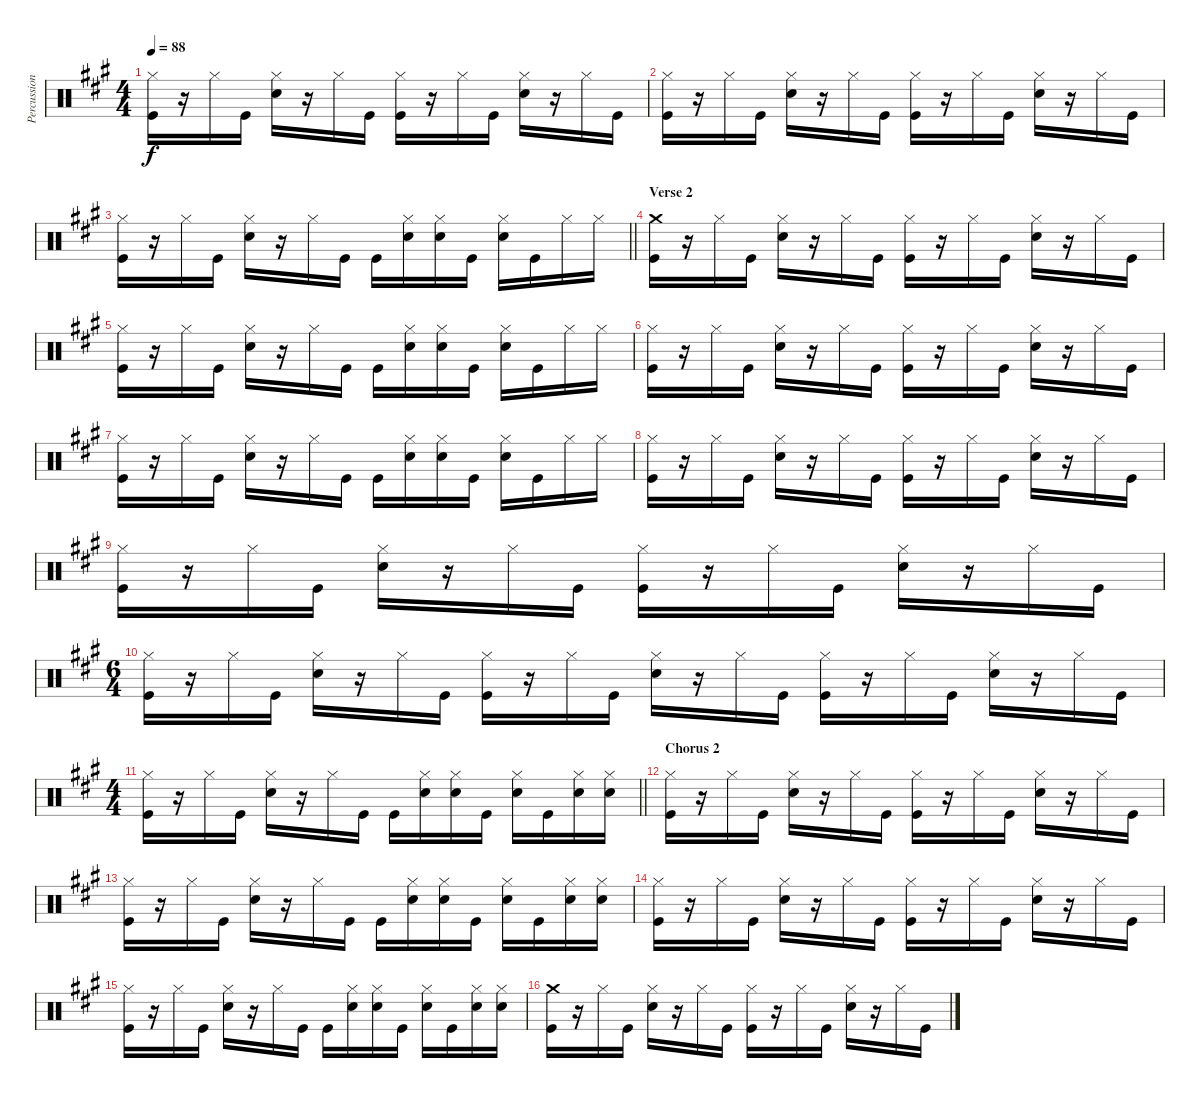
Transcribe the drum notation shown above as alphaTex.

\track ("Percussion" "Percussion") {instrument percussion}
\staff {score}
\articulation defaults
\ts (4 4)
\tempo 88
\clef neutral
\ks a
("Hi-Hat (closed)" "Kick (hit)").16{dy f} r.16 "Hi-Hat (closed)".16 "Kick (hit)".16 ("Hi-Hat (closed)" "Snare (hit) 2").16 r.16 "Hi-Hat (closed)".16 "Kick (hit)".16 ("Hi-Hat (closed)" "Kick (hit)").16 r.16 "Hi-Hat (closed)".16 "Kick (hit)".16 ("Hi-Hat (closed)" "Snare (hit) 2").16 r.16 "Hi-Hat (closed)".16 "Kick (hit)".16 |
("Hi-Hat (closed)" "Kick (hit)").16 r.16 "Hi-Hat (closed)".16 "Kick (hit)".16 ("Hi-Hat (closed)" "Snare (hit) 2").16 r.16 "Hi-Hat (closed)".16 "Kick (hit)".16 ("Hi-Hat (closed)" "Kick (hit)").16 r.16 "Hi-Hat (closed)".16 "Kick (hit)".16 ("Hi-Hat (closed)" "Snare (hit) 2").16 r.16 "Hi-Hat (closed)".16 "Kick (hit)".16 |
\barLineRight lightlight
("Hi-Hat (closed)" "Kick (hit)").16 r.16 "Hi-Hat (closed)".16 "Kick (hit)".16 ("Hi-Hat (closed)" "Snare (hit) 2").16 r.16 "Hi-Hat (closed)".16 "Kick (hit)".16 "Kick (hit)".16 ("Hi-Hat (closed)" "Snare (hit) 2").16 ("Hi-Hat (closed)" "Snare (hit) 2").16 "Kick (hit)".16 ("Hi-Hat (closed)" "Snare (hit) 2").16 "Kick (hit)".16 "Hi-Hat (closed)".16 "Hi-Hat (closed)".16 |
\section ("" "Verse 2")
("Crash medium (hit)" "Kick (hit)").16 r.16 "Hi-Hat (closed)".16 "Kick (hit)".16 ("Hi-Hat (closed)" "Snare (hit) 2").16 r.16 "Hi-Hat (closed)".16 "Kick (hit)".16 ("Hi-Hat (closed)" "Kick (hit)").16 r.16 "Hi-Hat (closed)".16 "Kick (hit)".16 ("Hi-Hat (closed)" "Snare (hit) 2").16 r.16 "Hi-Hat (closed)".16 "Kick (hit)".16 |
("Hi-Hat (closed)" "Kick (hit)").16 r.16 "Hi-Hat (closed)".16 "Kick (hit)".16 ("Hi-Hat (closed)" "Snare (hit) 2").16 r.16 "Hi-Hat (closed)".16 "Kick (hit)".16 "Kick (hit)".16 ("Hi-Hat (closed)" "Snare (hit) 2").16 ("Hi-Hat (closed)" "Snare (hit) 2").16 "Kick (hit)".16 ("Hi-Hat (closed)" "Snare (hit) 2").16 "Kick (hit)".16 "Hi-Hat (closed)".16 "Hi-Hat (closed)".16 |
("Hi-Hat (closed)" "Kick (hit)").16 r.16 "Hi-Hat (closed)".16 "Kick (hit)".16 ("Hi-Hat (closed)" "Snare (hit) 2").16 r.16 "Hi-Hat (closed)".16 "Kick (hit)".16 ("Hi-Hat (closed)" "Kick (hit)").16 r.16 "Hi-Hat (closed)".16 "Kick (hit)".16 ("Hi-Hat (closed)" "Snare (hit) 2").16 r.16 "Hi-Hat (closed)".16 "Kick (hit)".16 |
("Hi-Hat (closed)" "Kick (hit)").16 r.16 "Hi-Hat (closed)".16 "Kick (hit)".16 ("Hi-Hat (closed)" "Snare (hit) 2").16 r.16 "Hi-Hat (closed)".16 "Kick (hit)".16 "Kick (hit)".16 ("Hi-Hat (closed)" "Snare (hit) 2").16 ("Hi-Hat (closed)" "Snare (hit) 2").16 "Kick (hit)".16 ("Hi-Hat (closed)" "Snare (hit) 2").16 "Kick (hit)".16 "Hi-Hat (closed)".16 "Hi-Hat (closed)".16 |
("Hi-Hat (closed)" "Kick (hit)").16 r.16 "Hi-Hat (closed)".16 "Kick (hit)".16 ("Hi-Hat (closed)" "Snare (hit) 2").16 r.16 "Hi-Hat (closed)".16 "Kick (hit)".16 ("Hi-Hat (closed)" "Kick (hit)").16 r.16 "Hi-Hat (closed)".16 "Kick (hit)".16 ("Hi-Hat (closed)" "Snare (hit) 2").16 r.16 "Hi-Hat (closed)".16 "Kick (hit)".16 |
("Hi-Hat (closed)" "Kick (hit)").16 r.16 "Hi-Hat (closed)".16 "Kick (hit)".16 ("Hi-Hat (closed)" "Snare (hit) 2").16 r.16 "Hi-Hat (closed)".16 "Kick (hit)".16 ("Hi-Hat (closed)" "Kick (hit)").16 r.16 "Hi-Hat (closed)".16 "Kick (hit)".16 ("Hi-Hat (closed)" "Snare (hit) 2").16 r.16 "Hi-Hat (closed)".16 "Kick (hit)".16 |
\ts (6 4)
("Hi-Hat (closed)" "Kick (hit)").16 r.16 "Hi-Hat (closed)".16 "Kick (hit)".16 ("Hi-Hat (closed)" "Snare (hit) 2").16 r.16 "Hi-Hat (closed)".16 "Kick (hit)".16 ("Hi-Hat (closed)" "Kick (hit)").16 r.16 "Hi-Hat (closed)".16 "Kick (hit)".16 ("Hi-Hat (closed)" "Snare (hit) 2").16 r.16 "Hi-Hat (closed)".16 "Kick (hit)".16 ("Hi-Hat (closed)" "Kick (hit)").16 r.16 "Hi-Hat (closed)".16 "Kick (hit)".16 ("Hi-Hat (closed)" "Snare (hit) 2").16 r.16 "Hi-Hat (closed)".16 "Kick (hit)".16 |
\ts (4 4)
\barLineRight lightlight
("Hi-Hat (closed)" "Kick (hit)").16 r.16 "Hi-Hat (closed)".16 "Kick (hit)".16 ("Hi-Hat (closed)" "Snare (hit) 2").16 r.16 "Hi-Hat (closed)".16 "Kick (hit)".16 "Kick (hit)".16 ("Hi-Hat (closed)" "Snare (hit) 2").16 ("Hi-Hat (closed)" "Snare (hit) 2").16 "Kick (hit)".16 ("Hi-Hat (closed)" "Snare (hit) 2").16 "Kick (hit)".16 ("Hi-Hat (closed)" "Snare (hit) 2").16 ("Hi-Hat (closed)" "Snare (hit) 2").16 |
\section ("" "Chorus 2")
("Hi-Hat (closed)" "Kick (hit)").16 r.16 "Hi-Hat (closed)".16 "Kick (hit)".16 ("Hi-Hat (closed)" "Snare (hit) 2").16 r.16 "Hi-Hat (closed)".16 "Kick (hit)".16 ("Hi-Hat (closed)" "Kick (hit)").16 r.16 "Hi-Hat (closed)".16 "Kick (hit)".16 ("Hi-Hat (closed)" "Snare (hit) 2").16 r.16 "Hi-Hat (closed)".16 "Kick (hit)".16 |
("Hi-Hat (closed)" "Kick (hit)").16 r.16 "Hi-Hat (closed)".16 "Kick (hit)".16 ("Hi-Hat (closed)" "Snare (hit) 2").16 r.16 "Hi-Hat (closed)".16 "Kick (hit)".16 "Kick (hit)".16 ("Hi-Hat (closed)" "Snare (hit) 2").16 ("Hi-Hat (closed)" "Snare (hit) 2").16 "Kick (hit)".16 ("Hi-Hat (closed)" "Snare (hit) 2").16 "Kick (hit)".16 ("Hi-Hat (closed)" "Snare (hit) 2").16 ("Hi-Hat (closed)" "Snare (hit) 2").16 |
("Hi-Hat (closed)" "Kick (hit)").16 r.16 "Hi-Hat (closed)".16 "Kick (hit)".16 ("Hi-Hat (closed)" "Snare (hit) 2").16 r.16 "Hi-Hat (closed)".16 "Kick (hit)".16 ("Hi-Hat (closed)" "Kick (hit)").16 r.16 "Hi-Hat (closed)".16 "Kick (hit)".16 ("Hi-Hat (closed)" "Snare (hit) 2").16 r.16 "Hi-Hat (closed)".16 "Kick (hit)".16 |
("Hi-Hat (closed)" "Kick (hit)").16 r.16 "Hi-Hat (closed)".16 "Kick (hit)".16 ("Hi-Hat (closed)" "Snare (hit) 2").16 r.16 "Hi-Hat (closed)".16 "Kick (hit)".16 "Kick (hit)".16 ("Hi-Hat (closed)" "Snare (hit) 2").16 ("Hi-Hat (closed)" "Snare (hit) 2").16 "Kick (hit)".16 ("Hi-Hat (closed)" "Snare (hit) 2").16 "Kick (hit)".16 ("Hi-Hat (closed)" "Snare (hit) 2").16 ("Hi-Hat (closed)" "Snare (hit) 2").16 |
("Crash medium (hit)" "Kick (hit)").16 r.16 "Hi-Hat (closed)".16 "Kick (hit)".16 ("Hi-Hat (closed)" "Snare (hit) 2").16 r.16 "Hi-Hat (closed)".16 "Kick (hit)".16 ("Hi-Hat (closed)" "Kick (hit)").16 r.16 "Hi-Hat (closed)".16 "Kick (hit)".16 ("Hi-Hat (closed)" "Snare (hit) 2").16 r.16 "Hi-Hat (closed)".16 "Kick (hit)".16
